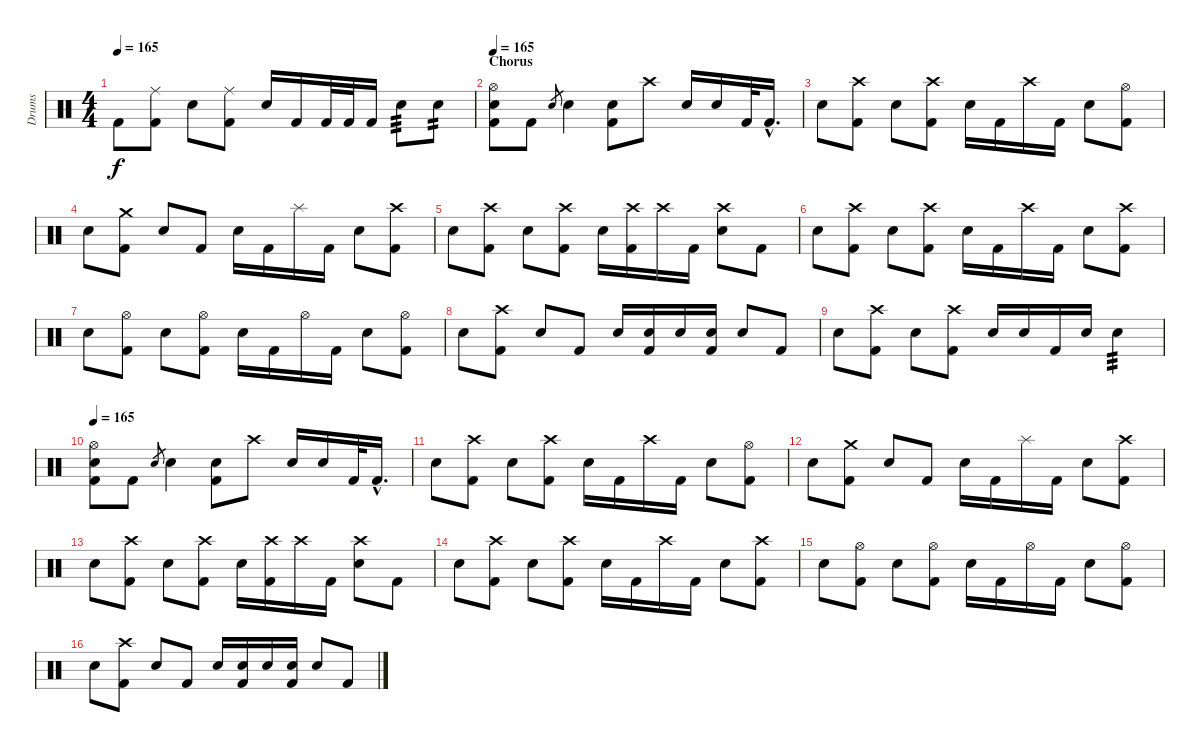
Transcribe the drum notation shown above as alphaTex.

\track ("Drums" "Drums") {instrument percussion}
\staff {score}
\articulation defaults
\ts (4 4)
\tempo 165
\clef neutral
\ks c "Kick (hit) 2".8{dy f}
("Ride (middle)" "Kick (hit) 2").8 "Electric Snare (hit)".8 ("Ride (middle)" "Kick (hit) 2").8 "Electric Snare (hit)".16 "Kick (hit) 2".16 "Kick (hit) 2".32 "Kick (hit) 2".32 "Kick (hit) 2".16 "Electric Snare (hit)".8{tp 3} "Electric Snare (hit)".8{tp 2} |
\section ("" "Chorus")
\tempo 165
("Hi-Hat (open)" "Electric Snare (hit)" "Kick (hit) 2").8 "Kick (hit) 2".8 "Electric Snare (hit)".8{gr} "Electric Snare (hit)".4 ("Electric Snare (hit)" "Kick (hit) 2").8 "Crash high (hit)".8 "Electric Snare (hit)".16 "Electric Snare (hit)".16 "Kick (hit) 2".32 "Kick (hit) 2"{hac}.16{d} |
"Electric Snare (hit)".8 ("Crash high (hit)" "Kick (hit) 2").8 "Electric Snare (hit)".8 ("Crash high (hit)" "Kick (hit) 2").8 "Electric Snare (hit)".16 "Kick (hit) 2".16 "Crash high (hit)".16 "Kick (hit) 2".16 "Electric Snare (hit)".8 ("Hi-Hat (open)" "Kick (hit) 2").8 |
"Electric Snare (hit)".8 ("Crash medium (hit)" "Kick (hit) 2").8 "Electric Snare (hit)".8 "Kick (hit) 2".8 "Electric Snare (hit)".16 "Kick (hit) 2".16 "Splash (hit)".16 "Kick (hit) 2".16 "Electric Snare (hit)".8 ("Crash high (hit)" "Kick (hit) 2").8 |
"Electric Snare (hit)".8 ("Crash high (hit)" "Kick (hit) 2").8 "Electric Snare (hit)".8 ("Crash high (hit)" "Kick (hit) 2").8 "Electric Snare (hit)".16 ("Crash high (hit)" "Kick (hit) 2").16 "Crash high (hit)".16 "Kick (hit) 2".16 ("Crash high (hit)" "Electric Snare (hit)").8 "Kick (hit) 2".8 |
"Electric Snare (hit)".8 ("Crash high (hit)" "Kick (hit) 2").8 "Electric Snare (hit)".8 ("Crash high (hit)" "Kick (hit) 2").8 "Electric Snare (hit)".16 "Kick (hit) 2".16 "Crash high (hit)".16 "Kick (hit) 2".16 "Electric Snare (hit)".8 ("Crash high (hit)" "Kick (hit) 2").8 |
"Electric Snare (hit)".8 ("Hi-Hat (open)" "Kick (hit) 2").8 "Electric Snare (hit)".8 ("Hi-Hat (open)" "Kick (hit) 2").8 "Electric Snare (hit)".16 "Kick (hit) 2".16 "Hi-Hat (open)".16 "Kick (hit) 2".16 "Electric Snare (hit)".8 ("Hi-Hat (open)" "Kick (hit) 2").8 |
"Electric Snare (hit)".8 ("Crash high (hit)" "Kick (hit) 2").8 "Electric Snare (hit)".8 "Kick (hit) 2".8 "Electric Snare (hit)".16 ("Electric Snare (hit)" "Kick (hit) 2").16 "Electric Snare (hit)".16 ("Electric Snare (hit)" "Kick (hit) 2").16 "Electric Snare (hit)".8 "Kick (hit) 2".8 |
"Electric Snare (hit)".8 ("Crash high (hit)" "Kick (hit) 2").8 "Electric Snare (hit)".8 ("Crash high (hit)" "Kick (hit) 2").8 "Electric Snare (hit)".16 "Electric Snare (hit)".16 "Kick (hit) 2".16 "Electric Snare (hit)".16 "Electric Snare (hit)".4{tp 3} |
\tempo 165
("Hi-Hat (open)" "Electric Snare (hit)" "Kick (hit) 2").8 "Kick (hit) 2".8 "Electric Snare (hit)".8{gr} "Electric Snare (hit)".4 ("Electric Snare (hit)" "Kick (hit) 2").8 "Crash high (hit)".8 "Electric Snare (hit)".16 "Electric Snare (hit)".16 "Kick (hit) 2".32 "Kick (hit) 2"{hac}.16{d} |
"Electric Snare (hit)".8 ("Crash high (hit)" "Kick (hit) 2").8 "Electric Snare (hit)".8 ("Crash high (hit)" "Kick (hit) 2").8 "Electric Snare (hit)".16 "Kick (hit) 2".16 "Crash high (hit)".16 "Kick (hit) 2".16 "Electric Snare (hit)".8 ("Hi-Hat (open)" "Kick (hit) 2").8 |
"Electric Snare (hit)".8 ("Crash medium (hit)" "Kick (hit) 2").8 "Electric Snare (hit)".8 "Kick (hit) 2".8 "Electric Snare (hit)".16 "Kick (hit) 2".16 "Splash (hit)".16 "Kick (hit) 2".16 "Electric Snare (hit)".8 ("Crash high (hit)" "Kick (hit) 2").8 |
"Electric Snare (hit)".8 ("Crash high (hit)" "Kick (hit) 2").8 "Electric Snare (hit)".8 ("Crash high (hit)" "Kick (hit) 2").8 "Electric Snare (hit)".16 ("Crash high (hit)" "Kick (hit) 2").16 "Crash high (hit)".16 "Kick (hit) 2".16 ("Crash high (hit)" "Electric Snare (hit)").8 "Kick (hit) 2".8 |
"Electric Snare (hit)".8 ("Crash high (hit)" "Kick (hit) 2").8 "Electric Snare (hit)".8 ("Crash high (hit)" "Kick (hit) 2").8 "Electric Snare (hit)".16 "Kick (hit) 2".16 "Crash high (hit)".16 "Kick (hit) 2".16 "Electric Snare (hit)".8 ("Crash high (hit)" "Kick (hit) 2").8 |
"Electric Snare (hit)".8 ("Hi-Hat (open)" "Kick (hit) 2").8 "Electric Snare (hit)".8 ("Hi-Hat (open)" "Kick (hit) 2").8 "Electric Snare (hit)".16 "Kick (hit) 2".16 "Hi-Hat (open)".16 "Kick (hit) 2".16 "Electric Snare (hit)".8 ("Hi-Hat (open)" "Kick (hit) 2").8 |
"Electric Snare (hit)".8 ("Crash high (hit)" "Kick (hit) 2").8 "Electric Snare (hit)".8 "Kick (hit) 2".8 "Electric Snare (hit)".16 ("Electric Snare (hit)" "Kick (hit) 2").16 "Electric Snare (hit)".16 ("Electric Snare (hit)" "Kick (hit) 2").16 "Electric Snare (hit)".8 "Kick (hit) 2".8
